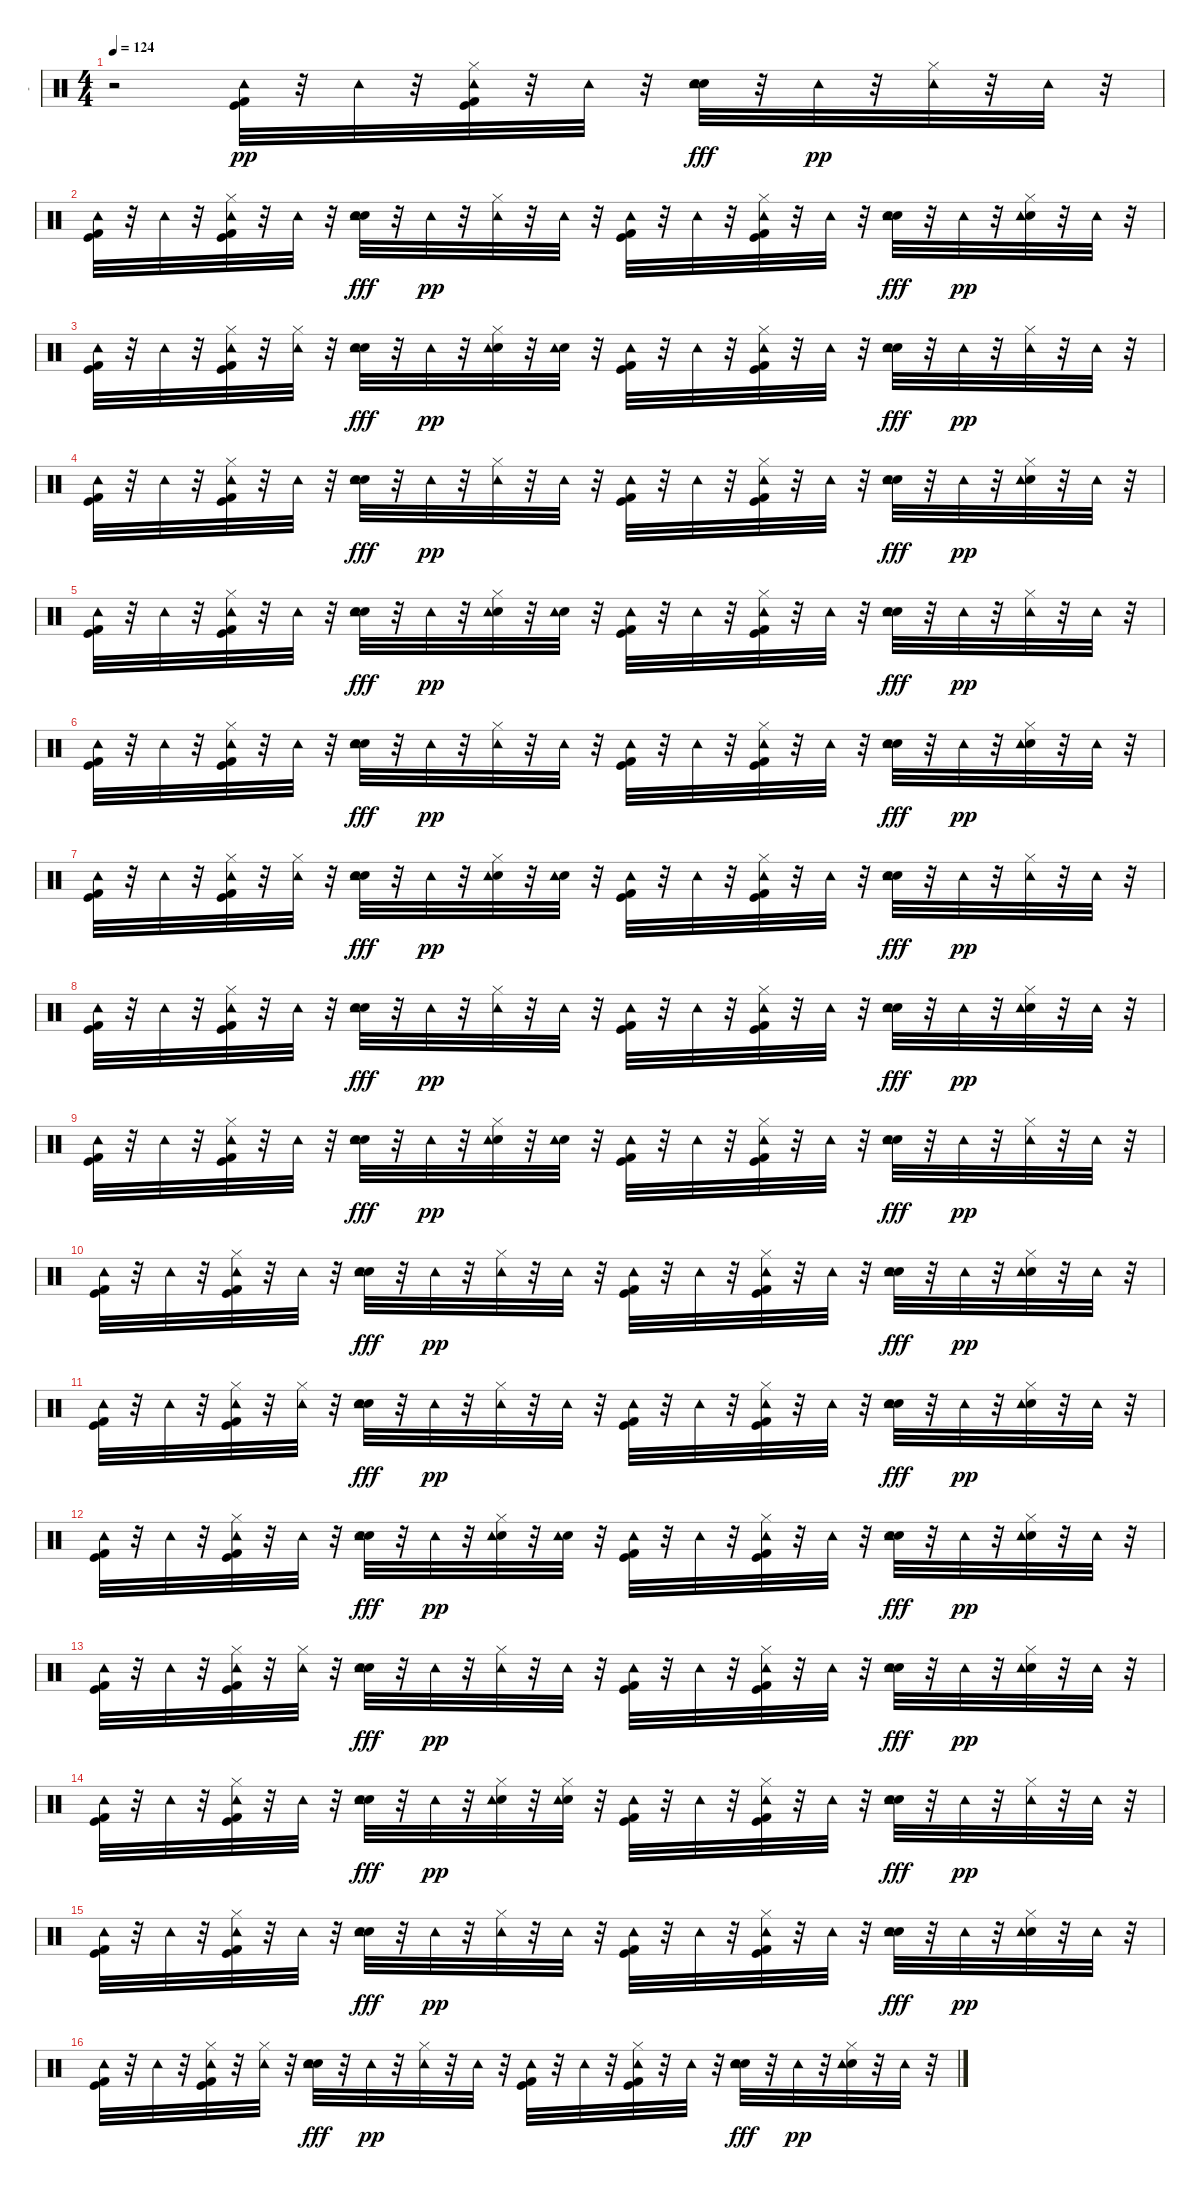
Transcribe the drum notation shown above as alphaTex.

\track ("-" "-") {instrument percussion}
\staff {score}
\articulation defaults
\ts (4 4)
\tempo 124
\clef neutral
\ks c
r.2{dy ff} ("Kick (hit)" "Kick (hit) 2" "Tambourine (hit)").32{dy pp} r.32 "Tambourine (hit)".32 r.32 ("Kick (hit)" "Kick (hit) 2" "Hi-Hat (closed)" "Tambourine (hit)").32 r.32 "Tambourine (hit)".32 r.32 ("Snare (hit) 2" "Hand Clap (hit)" "Tambourine (hit)").32{dy fff} r.32 "Tambourine (hit)".32{dy pp} r.32 ("Hi-Hat (closed)" "Tambourine (hit)").32 r.32 "Tambourine (hit)".32 r.32 |
("Kick (hit)" "Kick (hit) 2" "Tambourine (hit)").32 r.32 "Tambourine (hit)".32 r.32 ("Kick (hit)" "Kick (hit) 2" "Hi-Hat (closed)" "Tambourine (hit)").32 r.32 "Tambourine (hit)".32 r.32 ("Snare (hit) 2" "Hand Clap (hit)" "Tambourine (hit)").32{dy fff} r.32 "Tambourine (hit)".32{dy pp} r.32 ("Hi-Hat (closed)" "Tambourine (hit)").32 r.32 "Tambourine (hit)".32 r.32 ("Kick (hit)" "Kick (hit) 2" "Tambourine (hit)").32 r.32 "Tambourine (hit)".32 r.32 ("Kick (hit)" "Kick (hit) 2" "Hi-Hat (closed)" "Tambourine (hit)").32 r.32 "Tambourine (hit)".32 r.32 ("Snare (hit) 2" "Hand Clap (hit)" "Tambourine (hit)").32{dy fff} r.32 "Tambourine (hit)".32{dy pp} r.32 ("Hand Clap (hit)" "Hi-Hat (closed)" "Tambourine (hit)").32 r.32 "Tambourine (hit)".32 r.32 |
("Kick (hit)" "Kick (hit) 2" "Tambourine (hit)").32 r.32 "Tambourine (hit)".32 r.32 ("Kick (hit)" "Kick (hit) 2" "Hi-Hat (closed)" "Tambourine (hit)").32 r.32 ("Hi-Hat (closed)" "Tambourine (hit)").32 r.32 ("Snare (hit) 2" "Hand Clap (hit)" "Tambourine (hit)").32{dy fff} r.32 "Tambourine (hit)".32{dy pp} r.32 ("Snare (hit) 2" "Hi-Hat (closed)" "Tambourine (hit)").32 r.32 ("Snare (hit) 2" "Tambourine (hit)").32 r.32 ("Kick (hit)" "Kick (hit) 2" "Tambourine (hit)").32 r.32 "Tambourine (hit)".32 r.32 ("Kick (hit)" "Kick (hit) 2" "Hi-Hat (closed)" "Tambourine (hit)").32 r.32 "Tambourine (hit)".32 r.32 ("Snare (hit) 2" "Hand Clap (hit)" "Tambourine (hit)").32{dy fff} r.32 "Tambourine (hit)".32{dy pp} r.32 ("Hi-Hat (closed)" "Tambourine (hit)").32 r.32 "Tambourine (hit)".32 r.32 |
("Kick (hit)" "Kick (hit) 2" "Tambourine (hit)").32 r.32 "Tambourine (hit)".32 r.32 ("Kick (hit)" "Kick (hit) 2" "Hi-Hat (closed)" "Tambourine (hit)").32 r.32 "Tambourine (hit)".32 r.32 ("Snare (hit) 2" "Hand Clap (hit)" "Tambourine (hit)").32{dy fff} r.32 "Tambourine (hit)".32{dy pp} r.32 ("Hi-Hat (closed)" "Tambourine (hit)").32 r.32 "Tambourine (hit)".32 r.32 ("Kick (hit)" "Kick (hit) 2" "Tambourine (hit)").32 r.32 "Tambourine (hit)".32 r.32 ("Kick (hit)" "Kick (hit) 2" "Hi-Hat (closed)" "Tambourine (hit)").32 r.32 "Tambourine (hit)".32 r.32 ("Snare (hit) 2" "Hand Clap (hit)" "Tambourine (hit)").32{dy fff} r.32 "Tambourine (hit)".32{dy pp} r.32 ("Hand Clap (hit)" "Hi-Hat (closed)" "Tambourine (hit)").32 r.32 "Tambourine (hit)".32 r.32 |
("Kick (hit)" "Kick (hit) 2" "Tambourine (hit)").32 r.32 "Tambourine (hit)".32 r.32 ("Kick (hit)" "Kick (hit) 2" "Hi-Hat (closed)" "Tambourine (hit)").32 r.32 "Tambourine (hit)".32 r.32 ("Snare (hit) 2" "Hand Clap (hit)" "Tambourine (hit)").32{dy fff} r.32 "Tambourine (hit)".32{dy pp} r.32 ("Snare (hit) 2" "Hi-Hat (closed)" "Tambourine (hit)").32 r.32 ("Snare (hit) 2" "Tambourine (hit)").32 r.32 ("Kick (hit)" "Kick (hit) 2" "Tambourine (hit)").32 r.32 "Tambourine (hit)".32 r.32 ("Kick (hit)" "Kick (hit) 2" "Hi-Hat (closed)" "Tambourine (hit)").32 r.32 "Tambourine (hit)".32 r.32 ("Snare (hit) 2" "Hand Clap (hit)" "Tambourine (hit)").32{dy fff} r.32 "Tambourine (hit)".32{dy pp} r.32 ("Hi-Hat (closed)" "Tambourine (hit)").32 r.32 "Tambourine (hit)".32 r.32 |
("Kick (hit)" "Kick (hit) 2" "Tambourine (hit)").32 r.32 "Tambourine (hit)".32 r.32 ("Kick (hit)" "Kick (hit) 2" "Hi-Hat (closed)" "Tambourine (hit)").32 r.32 "Tambourine (hit)".32 r.32 ("Snare (hit) 2" "Hand Clap (hit)" "Tambourine (hit)").32{dy fff} r.32 "Tambourine (hit)".32{dy pp} r.32 ("Hi-Hat (closed)" "Tambourine (hit)").32 r.32 "Tambourine (hit)".32 r.32 ("Kick (hit)" "Kick (hit) 2" "Tambourine (hit)").32 r.32 "Tambourine (hit)".32 r.32 ("Kick (hit)" "Kick (hit) 2" "Hi-Hat (closed)" "Tambourine (hit)").32 r.32 "Tambourine (hit)".32 r.32 ("Snare (hit) 2" "Hand Clap (hit)" "Tambourine (hit)").32{dy fff} r.32 "Tambourine (hit)".32{dy pp} r.32 ("Hand Clap (hit)" "Hi-Hat (closed)" "Tambourine (hit)").32 r.32 "Tambourine (hit)".32 r.32 |
("Kick (hit)" "Kick (hit) 2" "Tambourine (hit)").32 r.32 "Tambourine (hit)".32 r.32 ("Kick (hit)" "Kick (hit) 2" "Hi-Hat (closed)" "Tambourine (hit)").32 r.32 ("Hi-Hat (closed)" "Tambourine (hit)").32 r.32 ("Snare (hit) 2" "Hand Clap (hit)" "Tambourine (hit)").32{dy fff} r.32 "Tambourine (hit)".32{dy pp} r.32 ("Snare (hit) 2" "Hi-Hat (closed)" "Tambourine (hit)").32 r.32 ("Snare (hit) 2" "Tambourine (hit)").32 r.32 ("Kick (hit)" "Kick (hit) 2" "Tambourine (hit)").32 r.32 "Tambourine (hit)".32 r.32 ("Kick (hit)" "Kick (hit) 2" "Hi-Hat (closed)" "Tambourine (hit)").32 r.32 "Tambourine (hit)".32 r.32 ("Snare (hit) 2" "Hand Clap (hit)" "Tambourine (hit)").32{dy fff} r.32 "Tambourine (hit)".32{dy pp} r.32 ("Hi-Hat (closed)" "Tambourine (hit)").32 r.32 "Tambourine (hit)".32 r.32 |
("Kick (hit)" "Kick (hit) 2" "Tambourine (hit)").32 r.32 "Tambourine (hit)".32 r.32 ("Kick (hit)" "Kick (hit) 2" "Hi-Hat (closed)" "Tambourine (hit)").32 r.32 "Tambourine (hit)".32 r.32 ("Snare (hit) 2" "Hand Clap (hit)" "Tambourine (hit)").32{dy fff} r.32 "Tambourine (hit)".32{dy pp} r.32 ("Hi-Hat (closed)" "Tambourine (hit)").32 r.32 "Tambourine (hit)".32 r.32 ("Kick (hit)" "Kick (hit) 2" "Tambourine (hit)").32 r.32 "Tambourine (hit)".32 r.32 ("Kick (hit)" "Kick (hit) 2" "Hi-Hat (closed)" "Tambourine (hit)").32 r.32 "Tambourine (hit)".32 r.32 ("Snare (hit) 2" "Hand Clap (hit)" "Tambourine (hit)").32{dy fff} r.32 "Tambourine (hit)".32{dy pp} r.32 ("Hand Clap (hit)" "Hi-Hat (closed)" "Tambourine (hit)").32 r.32 "Tambourine (hit)".32 r.32 |
("Kick (hit)" "Kick (hit) 2" "Tambourine (hit)").32 r.32 "Tambourine (hit)".32 r.32 ("Kick (hit)" "Kick (hit) 2" "Hi-Hat (closed)" "Tambourine (hit)").32 r.32 "Tambourine (hit)".32 r.32 ("Snare (hit) 2" "Hand Clap (hit)" "Tambourine (hit)").32{dy fff} r.32 "Tambourine (hit)".32{dy pp} r.32 ("Snare (hit) 2" "Hi-Hat (closed)" "Tambourine (hit)").32 r.32 ("Snare (hit) 2" "Tambourine (hit)").32 r.32 ("Kick (hit)" "Kick (hit) 2" "Tambourine (hit)").32 r.32 "Tambourine (hit)".32 r.32 ("Kick (hit)" "Kick (hit) 2" "Hi-Hat (closed)" "Tambourine (hit)").32 r.32 "Tambourine (hit)".32 r.32 ("Snare (hit) 2" "Hand Clap (hit)" "Tambourine (hit)").32{dy fff} r.32 "Tambourine (hit)".32{dy pp} r.32 ("Hi-Hat (closed)" "Tambourine (hit)").32 r.32 "Tambourine (hit)".32 r.32 |
("Kick (hit)" "Kick (hit) 2" "Tambourine (hit)").32 r.32 "Tambourine (hit)".32 r.32 ("Kick (hit)" "Kick (hit) 2" "Hi-Hat (closed)" "Tambourine (hit)").32 r.32 "Tambourine (hit)".32 r.32 ("Snare (hit) 2" "Hand Clap (hit)" "Tambourine (hit)").32{dy fff} r.32 "Tambourine (hit)".32{dy pp} r.32 ("Hi-Hat (closed)" "Tambourine (hit)").32 r.32 "Tambourine (hit)".32 r.32 ("Kick (hit)" "Kick (hit) 2" "Tambourine (hit)").32 r.32 "Tambourine (hit)".32 r.32 ("Kick (hit)" "Kick (hit) 2" "Hi-Hat (closed)" "Tambourine (hit)").32 r.32 "Tambourine (hit)".32 r.32 ("Snare (hit) 2" "Hand Clap (hit)" "Tambourine (hit)").32{dy fff} r.32 "Tambourine (hit)".32{dy pp} r.32 ("Hand Clap (hit)" "Hi-Hat (closed)" "Tambourine (hit)").32 r.32 "Tambourine (hit)".32 r.32 |
("Kick (hit)" "Kick (hit) 2" "Tambourine (hit)").32 r.32 "Tambourine (hit)".32 r.32 ("Kick (hit)" "Kick (hit) 2" "Hi-Hat (closed)" "Tambourine (hit)").32 r.32 ("Hi-Hat (closed)" "Tambourine (hit)").32 r.32 ("Snare (hit) 2" "Hand Clap (hit)" "Tambourine (hit)").32{dy fff} r.32 "Tambourine (hit)".32{dy pp} r.32 ("Hi-Hat (closed)" "Tambourine (hit)").32 r.32 "Tambourine (hit)".32 r.32 ("Kick (hit)" "Kick (hit) 2" "Tambourine (hit)").32 r.32 "Tambourine (hit)".32 r.32 ("Kick (hit)" "Kick (hit) 2" "Hi-Hat (closed)" "Tambourine (hit)").32 r.32 "Tambourine (hit)".32 r.32 ("Snare (hit) 2" "Hand Clap (hit)" "Tambourine (hit)").32{dy fff} r.32 "Tambourine (hit)".32{dy pp} r.32 ("Hand Clap (hit)" "Hi-Hat (closed)" "Tambourine (hit)").32 r.32 "Tambourine (hit)".32 r.32 |
("Kick (hit)" "Kick (hit) 2" "Tambourine (hit)").32 r.32 "Tambourine (hit)".32 r.32 ("Kick (hit)" "Kick (hit) 2" "Hi-Hat (closed)" "Tambourine (hit)").32 r.32 "Tambourine (hit)".32 r.32 ("Snare (hit) 2" "Hand Clap (hit)" "Tambourine (hit)").32{dy fff} r.32 "Tambourine (hit)".32{dy pp} r.32 ("Snare (hit) 2" "Hi-Hat (closed)" "Tambourine (hit)").32 r.32 ("Snare (hit) 2" "Tambourine (hit)").32 r.32 ("Kick (hit)" "Kick (hit) 2" "Tambourine (hit)").32 r.32 "Tambourine (hit)".32 r.32 ("Kick (hit)" "Kick (hit) 2" "Hi-Hat (closed)" "Tambourine (hit)").32 r.32 "Tambourine (hit)".32 r.32 ("Snare (hit) 2" "Hand Clap (hit)" "Tambourine (hit)").32{dy fff} r.32 "Tambourine (hit)".32{dy pp} r.32 ("Hand Clap (hit)" "Hi-Hat (closed)" "Tambourine (hit)").32 r.32 "Tambourine (hit)".32 r.32 |
("Kick (hit)" "Kick (hit) 2" "Tambourine (hit)").32 r.32 "Tambourine (hit)".32 r.32 ("Kick (hit)" "Kick (hit) 2" "Hi-Hat (closed)" "Tambourine (hit)").32 r.32 ("Hi-Hat (closed)" "Tambourine (hit)").32 r.32 ("Snare (hit) 2" "Hand Clap (hit)" "Tambourine (hit)").32{dy fff} r.32 "Tambourine (hit)".32{dy pp} r.32 ("Hi-Hat (closed)" "Tambourine (hit)").32 r.32 "Tambourine (hit)".32 r.32 ("Kick (hit)" "Kick (hit) 2" "Tambourine (hit)").32 r.32 "Tambourine (hit)".32 r.32 ("Kick (hit)" "Kick (hit) 2" "Hi-Hat (closed)" "Tambourine (hit)").32 r.32 "Tambourine (hit)".32 r.32 ("Snare (hit) 2" "Hand Clap (hit)" "Tambourine (hit)").32{dy fff} r.32 "Tambourine (hit)".32{dy pp} r.32 ("Hand Clap (hit)" "Hi-Hat (closed)" "Tambourine (hit)").32 r.32 "Tambourine (hit)".32 r.32 |
("Kick (hit)" "Kick (hit) 2" "Tambourine (hit)").32 r.32 "Tambourine (hit)".32 r.32 ("Kick (hit)" "Kick (hit) 2" "Hi-Hat (closed)" "Tambourine (hit)").32 r.32 "Tambourine (hit)".32 r.32 ("Snare (hit) 2" "Hand Clap (hit)" "Tambourine (hit)").32{dy fff} r.32 "Tambourine (hit)".32{dy pp} r.32 ("Snare (hit) 2" "Hi-Hat (closed)" "Tambourine (hit)").32 r.32 ("Snare (hit) 2" "Hi-Hat (closed)" "Tambourine (hit)").32 r.32 ("Kick (hit)" "Kick (hit) 2" "Tambourine (hit)").32 r.32 "Tambourine (hit)".32 r.32 ("Kick (hit)" "Kick (hit) 2" "Hi-Hat (closed)" "Tambourine (hit)").32 r.32 "Tambourine (hit)".32 r.32 ("Snare (hit) 2" "Hand Clap (hit)" "Tambourine (hit)").32{dy fff} r.32 "Tambourine (hit)".32{dy pp} r.32 ("Hi-Hat (closed)" "Tambourine (hit)").32 r.32 "Tambourine (hit)".32 r.32 |
("Kick (hit)" "Kick (hit) 2" "Tambourine (hit)").32 r.32 "Tambourine (hit)".32 r.32 ("Kick (hit)" "Kick (hit) 2" "Hi-Hat (closed)" "Tambourine (hit)").32 r.32 "Tambourine (hit)".32 r.32 ("Snare (hit) 2" "Hand Clap (hit)" "Tambourine (hit)").32{dy fff} r.32 "Tambourine (hit)".32{dy pp} r.32 ("Hi-Hat (closed)" "Tambourine (hit)").32 r.32 "Tambourine (hit)".32 r.32 ("Kick (hit)" "Kick (hit) 2" "Tambourine (hit)").32 r.32 "Tambourine (hit)".32 r.32 ("Kick (hit)" "Kick (hit) 2" "Hi-Hat (closed)" "Tambourine (hit)").32 r.32 "Tambourine (hit)".32 r.32 ("Snare (hit) 2" "Hand Clap (hit)" "Tambourine (hit)").32{dy fff} r.32 "Tambourine (hit)".32{dy pp} r.32 ("Hand Clap (hit)" "Hi-Hat (closed)" "Tambourine (hit)").32 r.32 "Tambourine (hit)".32 r.32 |
("Kick (hit)" "Kick (hit) 2" "Tambourine (hit)").32 r.32 "Tambourine (hit)".32 r.32 ("Kick (hit)" "Kick (hit) 2" "Hi-Hat (closed)" "Tambourine (hit)").32 r.32 ("Hi-Hat (closed)" "Tambourine (hit)").32 r.32 ("Snare (hit) 2" "Hand Clap (hit)" "Tambourine (hit)").32{dy fff} r.32 "Tambourine (hit)".32{dy pp} r.32 ("Hi-Hat (closed)" "Tambourine (hit)").32 r.32 "Tambourine (hit)".32 r.32 ("Kick (hit)" "Kick (hit) 2" "Tambourine (hit)").32 r.32 "Tambourine (hit)".32 r.32 ("Kick (hit)" "Kick (hit) 2" "Hi-Hat (closed)" "Tambourine (hit)").32 r.32 "Tambourine (hit)".32 r.32 ("Snare (hit) 2" "Hand Clap (hit)" "Tambourine (hit)").32{dy fff} r.32 "Tambourine (hit)".32{dy pp} r.32 ("Hand Clap (hit)" "Hi-Hat (closed)" "Tambourine (hit)").32 r.32 "Tambourine (hit)".32 r.32
